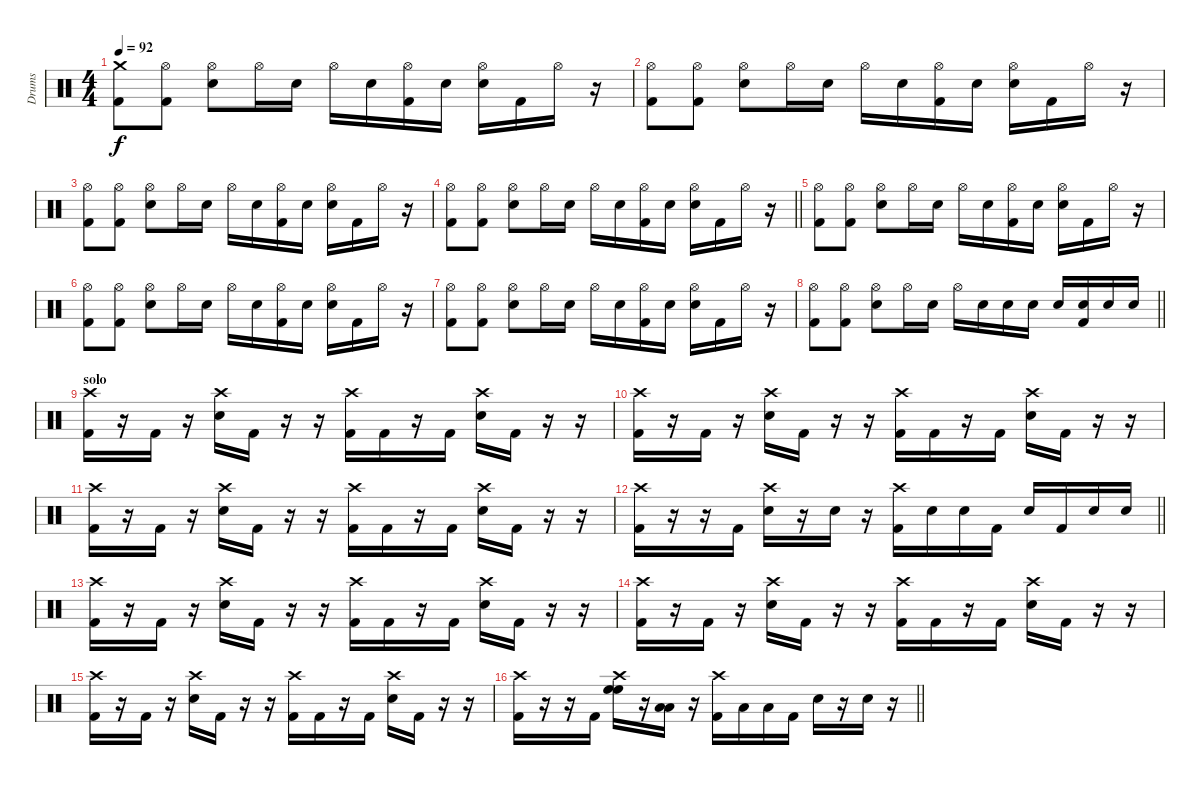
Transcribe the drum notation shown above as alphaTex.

\track ("Drums" "Drums") {instrument percussion}
\staff {score}
\articulation defaults
\ts (4 4)
\tempo 92
\clef neutral
\ks c
("Crash medium (hit)" "Kick (hit) 2").8{dy f} ("Hi-Hat (open)" "Kick (hit) 2").8 ("Hi-Hat (open)" "Snare (hit) 2").8 "Hi-Hat (open)".16 "Snare (hit) 2".16 "Hi-Hat (open)".16 "Snare (hit) 2".16 ("Hi-Hat (open)" "Kick (hit) 2").16 "Snare (hit) 2".16 ("Hi-Hat (open)" "Snare (hit) 2").16 "Kick (hit) 2".16 "Hi-Hat (open)".16 r.16 |
("Hi-Hat (open)" "Kick (hit) 2").8 ("Hi-Hat (open)" "Kick (hit) 2").8 ("Hi-Hat (open)" "Snare (hit) 2").8 "Hi-Hat (open)".16 "Snare (hit) 2".16 "Hi-Hat (open)".16 "Snare (hit) 2".16 ("Hi-Hat (open)" "Kick (hit) 2").16 "Snare (hit) 2".16 ("Hi-Hat (open)" "Snare (hit) 2").16 "Kick (hit) 2".16 "Hi-Hat (open)".16 r.16 |
("Hi-Hat (open)" "Kick (hit) 2").8 ("Hi-Hat (open)" "Kick (hit) 2").8 ("Hi-Hat (open)" "Snare (hit) 2").8 "Hi-Hat (open)".16 "Snare (hit) 2".16 "Hi-Hat (open)".16 "Snare (hit) 2".16 ("Hi-Hat (open)" "Kick (hit) 2").16 "Snare (hit) 2".16 ("Hi-Hat (open)" "Snare (hit) 2").16 "Kick (hit) 2".16 "Hi-Hat (open)".16 r.16 |
\barLineRight lightlight
("Hi-Hat (open)" "Kick (hit) 2").8 ("Hi-Hat (open)" "Kick (hit) 2").8 ("Hi-Hat (open)" "Snare (hit) 2").8 "Hi-Hat (open)".16 "Snare (hit) 2".16 "Hi-Hat (open)".16 "Snare (hit) 2".16 ("Hi-Hat (open)" "Kick (hit) 2").16 "Snare (hit) 2".16 ("Hi-Hat (open)" "Snare (hit) 2").16 "Kick (hit) 2".16 "Hi-Hat (open)".16 r.16 |
("Hi-Hat (open)" "Kick (hit) 2").8 ("Hi-Hat (open)" "Kick (hit) 2").8 ("Hi-Hat (open)" "Snare (hit) 2").8 "Hi-Hat (open)".16 "Snare (hit) 2".16 "Hi-Hat (open)".16 "Snare (hit) 2".16 ("Hi-Hat (open)" "Kick (hit) 2").16 "Snare (hit) 2".16 ("Hi-Hat (open)" "Snare (hit) 2").16 "Kick (hit) 2".16 "Hi-Hat (open)".16 r.16 |
("Hi-Hat (open)" "Kick (hit) 2").8 ("Hi-Hat (open)" "Kick (hit) 2").8 ("Hi-Hat (open)" "Snare (hit) 2").8 "Hi-Hat (open)".16 "Snare (hit) 2".16 "Hi-Hat (open)".16 "Snare (hit) 2".16 ("Hi-Hat (open)" "Kick (hit) 2").16 "Snare (hit) 2".16 ("Hi-Hat (open)" "Snare (hit) 2").16 "Kick (hit) 2".16 "Hi-Hat (open)".16 r.16 |
("Hi-Hat (open)" "Kick (hit) 2").8 ("Hi-Hat (open)" "Kick (hit) 2").8 ("Hi-Hat (open)" "Snare (hit) 2").8 "Hi-Hat (open)".16 "Snare (hit) 2".16 "Hi-Hat (open)".16 "Snare (hit) 2".16 ("Hi-Hat (open)" "Kick (hit) 2").16 "Snare (hit) 2".16 ("Hi-Hat (open)" "Snare (hit) 2").16 "Kick (hit) 2".16 "Hi-Hat (open)".16 r.16 |
\barLineRight lightlight
("Hi-Hat (open)" "Kick (hit) 2").8 ("Hi-Hat (open)" "Kick (hit) 2").8 ("Hi-Hat (open)" "Snare (hit) 2").8 "Hi-Hat (open)".16 "Snare (hit) 2".16 "Hi-Hat (open)".16 "Snare (hit) 2".16 "Snare (hit) 2".16 "Snare (hit) 2".16 "Snare (hit) 2".16 ("Snare (hit) 2" "Kick (hit) 2").16 "Snare (hit) 2".16 "Snare (hit) 2".16 |
\section ("" "solo")
("Crash high (hit)" "Kick (hit) 2").16 r.16 "Kick (hit) 2".16 r.16 ("Crash high (hit)" "Snare (hit) 2").16 "Kick (hit) 2".16 r.16 r.16 ("Crash high (hit)" "Kick (hit) 2").16 "Kick (hit) 2".16 r.16 "Kick (hit) 2".16 ("Crash high (hit)" "Snare (hit) 2").16 "Kick (hit) 2".16 r.16 r.16 |
("Crash high (hit)" "Kick (hit) 2").16 r.16 "Kick (hit) 2".16 r.16 ("Crash high (hit)" "Snare (hit) 2").16 "Kick (hit) 2".16 r.16 r.16 ("Crash high (hit)" "Kick (hit) 2").16 "Kick (hit) 2".16 r.16 "Kick (hit) 2".16 ("Crash high (hit)" "Snare (hit) 2").16 "Kick (hit) 2".16 r.16 r.16 |
("Crash high (hit)" "Kick (hit) 2").16 r.16 "Kick (hit) 2".16 r.16 ("Crash high (hit)" "Snare (hit) 2").16 "Kick (hit) 2".16 r.16 r.16 ("Crash high (hit)" "Kick (hit) 2").16 "Kick (hit) 2".16 r.16 "Kick (hit) 2".16 ("Crash high (hit)" "Snare (hit) 2").16 "Kick (hit) 2".16 r.16 r.16 |
\barLineRight lightlight
("Crash high (hit)" "Kick (hit) 2").16 r.16 r.16 "Kick (hit) 2".16 ("Crash high (hit)" "Snare (hit) 2").16 r.16 "Snare (hit) 2".16 r.16 ("Crash high (hit)" "Kick (hit) 2").16 "Snare (hit) 2".16 "Snare (hit) 2".16 "Kick (hit) 2".16 "Snare (hit) 2".16 "Kick (hit) 2".16 "Snare (hit) 2".16 "Snare (hit) 2".16 |
("Crash high (hit)" "Kick (hit) 2").16 r.16 "Kick (hit) 2".16 r.16 ("Crash high (hit)" "Snare (hit) 2").16 "Kick (hit) 2".16 r.16 r.16 ("Crash high (hit)" "Kick (hit) 2").16 "Kick (hit) 2".16 r.16 "Kick (hit) 2".16 ("Crash high (hit)" "Snare (hit) 2").16 "Kick (hit) 2".16 r.16 r.16 |
("Crash high (hit)" "Kick (hit) 2").16 r.16 "Kick (hit) 2".16 r.16 ("Crash high (hit)" "Snare (hit) 2").16 "Kick (hit) 2".16 r.16 r.16 ("Crash high (hit)" "Kick (hit) 2").16 "Kick (hit) 2".16 r.16 "Kick (hit) 2".16 ("Crash high (hit)" "Snare (hit) 2").16 "Kick (hit) 2".16 r.16 r.16 |
("Crash high (hit)" "Kick (hit) 2").16 r.16 "Kick (hit) 2".16 r.16 ("Crash high (hit)" "Snare (hit) 2").16 "Kick (hit) 2".16 r.16 r.16 ("Crash high (hit)" "Kick (hit) 2").16 "Kick (hit) 2".16 r.16 "Kick (hit) 2".16 ("Crash high (hit)" "Snare (hit) 2").16 "Kick (hit) 2".16 r.16 r.16 |
\barLineRight lightlight
("Crash high (hit)" "Kick (hit) 2").16 r.16 r.16 "Kick (hit) 2".16 ("Crash high (hit)" "High Floor Tom (hit)" "High Floor Tom (hit)").16 r.16 ("Low Tom (hit)" "Low Tom (hit)").16 r.16 ("Crash high (hit)" "Kick (hit) 2").16 "Low Tom (hit)".16 "Low Floor Tom (hit)".16 "Kick (hit) 2".16 "Snare (hit) 2".16 r.16 "Snare (hit) 2".16 r.16
